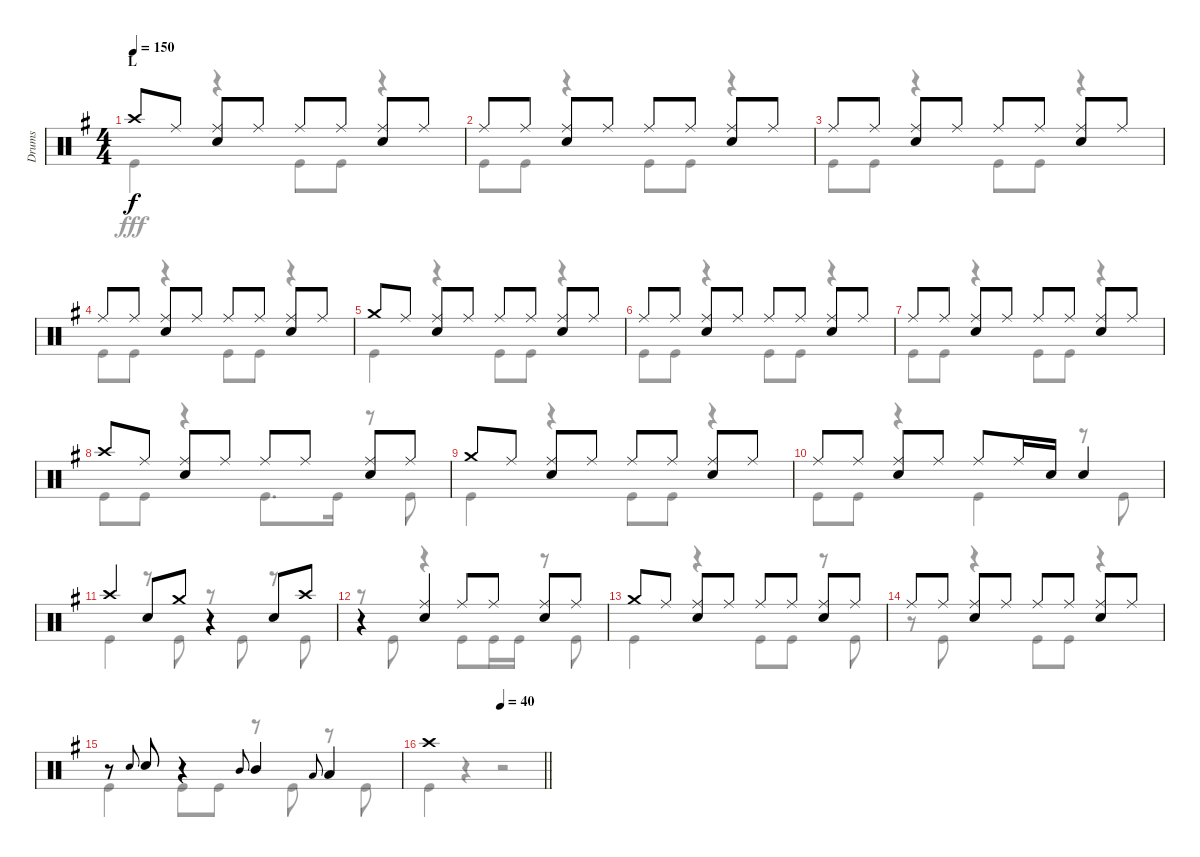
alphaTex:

\track ("Drums" "Drums") {instrument percussion}
\staff {score}
\articulation defaults
\voice
\ts (4 4)
\section ("" "L")
\tempo 150
\clef neutral
\ks g "Crash high (hit)".8{dy f} "Ride (middle)".8
("Ride (middle)" "Snare (hit) 2").8 "Ride (middle)".8 "Ride (middle)".8 "Ride (middle)".8 ("Ride (middle)" "Snare (hit) 2").8 "Ride (middle)".8 |
"Ride (middle)".8 "Ride (middle)".8 ("Ride (middle)" "Snare (hit) 2").8 "Ride (middle)".8 "Ride (middle)".8 "Ride (middle)".8 ("Ride (middle)" "Snare (hit) 2").8 "Ride (middle)".8 |
"Ride (middle)".8 "Ride (middle)".8 ("Ride (middle)" "Snare (hit) 2").8 "Ride (middle)".8 "Ride (middle)".8 "Ride (middle)".8 ("Ride (middle)" "Snare (hit) 2").8 "Ride (middle)".8 |
"Ride (middle)".8 "Ride (middle)".8 ("Ride (middle)" "Snare (hit) 2").8 "Ride (middle)".8 "Ride (middle)".8 "Ride (middle)".8 ("Ride (middle)" "Snare (hit) 2").8 "Ride (middle)".8 |
"Crash medium (hit)".8 "Ride (middle)".8 ("Ride (middle)" "Snare (hit) 2").8 "Ride (middle)".8 "Ride (middle)".8 "Ride (middle)".8 ("Ride (middle)" "Snare (hit) 2").8 "Ride (middle)".8 |
"Ride (middle)".8 "Ride (middle)".8 ("Ride (middle)" "Snare (hit) 2").8 "Ride (middle)".8 "Ride (middle)".8 "Ride (middle)".8 ("Ride (middle)" "Snare (hit) 2").8 "Ride (middle)".8 |
"Ride (middle)".8 "Ride (middle)".8 ("Ride (middle)" "Snare (hit) 2").8 "Ride (middle)".8 "Ride (middle)".8 "Ride (middle)".8 ("Ride (middle)" "Snare (hit) 2").8 "Ride (middle)".8 |
"Crash high (hit)".8 "Ride (middle)".8 ("Ride (middle)" "Snare (hit) 2").8 "Ride (middle)".8 "Ride (middle)".8 "Ride (middle)".8 ("Ride (middle)" "Snare (hit) 2").8 "Ride (middle)".8 |
"Crash medium (hit)".8 "Ride (middle)".8 ("Ride (middle)" "Snare (hit) 2").8 "Ride (middle)".8 "Ride (middle)".8 "Ride (middle)".8 ("Ride (middle)" "Snare (hit) 2").8 "Ride (middle)".8 |
"Ride (middle)".8 "Ride (middle)".8 ("Ride (middle)" "Snare (hit) 2").8 "Ride (middle)".8 "Ride (middle)".8 "Ride (middle)".16 "Snare (hit) 2".16 "Snare (hit) 2".4 |
"Crash high (hit)".4 "Snare (hit) 2".8 "Crash medium (hit)".8 r.4 "Snare (hit) 2".8 "Crash high (hit)".8 |
r.4 ("Ride (middle)" "Snare (hit) 2").4 "Ride (middle)".8 "Ride (middle)".8 ("Ride (middle)" "Snare (hit) 2").8 "Ride (middle)".8 |
"Crash medium (hit)".8 "Ride (middle)".8 ("Ride (middle)" "Snare (hit) 2").8 "Ride (middle)".8 "Ride (middle)".8 "Ride (middle)".8 ("Ride (middle)" "Snare (hit) 2").8 "Ride (middle)".8 |
"Ride (middle)".8 "Ride (middle)".8 ("Ride (middle)" "Snare (hit) 2").8 "Ride (middle)".8 "Ride (middle)".8 "Ride (middle)".8 ("Ride (middle)" "Snare (hit) 2").8 "Ride (middle)".8 |
r.8 "Snare (hit) 2".8{gr onbeat} "Snare (hit) 2".8 r.4 "Mid Tom (hit)".8{gr onbeat} "Mid Tom (hit)".4 "Low Tom (hit)".8{gr onbeat} "Low Tom (hit)".4 |
\tempo (40 0.625)
\barLineRight lightlight "Crash high (hit)".1
\voice
\clef neutral
\ottava regular
\simile none
\ks g "Kick (hit)".4{dy fff}
r.4 "Kick (hit)".8 "Kick (hit)".8 r.4 |
"Kick (hit)".8 "Kick (hit)".8 r.4 "Kick (hit)".8 "Kick (hit)".8 r.4 |
"Kick (hit)".8 "Kick (hit)".8 r.4 "Kick (hit)".8 "Kick (hit)".8 r.4 |
"Kick (hit)".8 "Kick (hit)".8 r.4 "Kick (hit)".8 "Kick (hit)".8 r.4 |
"Kick (hit)".4 r.4 "Kick (hit)".8 "Kick (hit)".8 r.4 |
"Kick (hit)".8 "Kick (hit)".8 r.4 "Kick (hit)".8 "Kick (hit)".8 r.4 |
"Kick (hit)".8 "Kick (hit)".8 r.4 "Kick (hit)".8 "Kick (hit)".8 r.4 |
"Kick (hit)".8 "Kick (hit)".8 r.4 "Kick (hit)".8{d} "Kick (hit)".16 r.8 "Kick (hit)".8 |
"Kick (hit)".4 r.4 "Kick (hit)".8 "Kick (hit)".8 r.4 |
"Kick (hit)".8 "Kick (hit)".8 r.4 "Kick (hit)".4 r.8 "Kick (hit)".8 |
"Kick (hit)".4 r.8 "Kick (hit)".8 r.8 "Kick (hit)".8 r.8 "Kick (hit)".8 |
r.8 "Kick (hit)".8 r.4 "Kick (hit)".8 "Kick (hit)".16 "Kick (hit)".16 r.8 "Kick (hit)".8 |
"Kick (hit)".4 r.4 "Kick (hit)".8 "Kick (hit)".8 r.8 "Kick (hit)".8 |
r.8 "Kick (hit)".8 r.4 "Kick (hit)".8 "Kick (hit)".8 r.4 |
"Kick (hit)".4 "Kick (hit)".8 "Kick (hit)".8 r.8 "Kick (hit)".8 r.8 "Kick (hit)".8 |
\barLineRight lightlight "Kick (hit)".4
r.4 r.2
